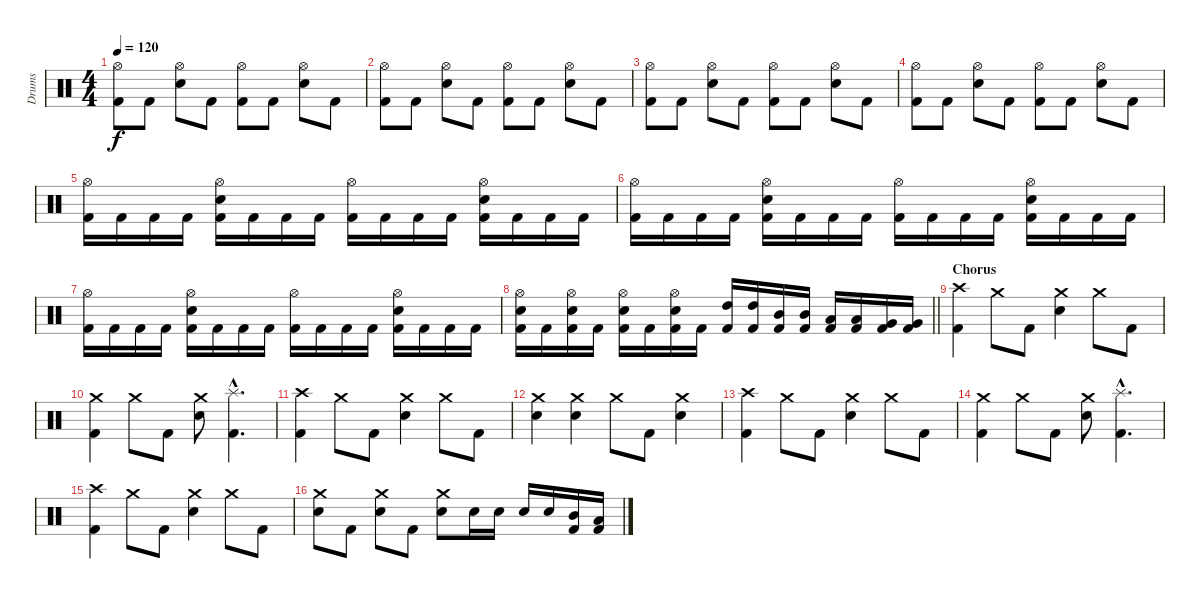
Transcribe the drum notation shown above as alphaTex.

\track ("Drums" "Drums") {instrument percussion}
\staff {score}
\articulation defaults
\ts (4 4)
\tempo 120
\clef neutral
\ks c
("Hi-Hat (open)" "Kick (hit) 2").8{dy f} "Kick (hit) 2".8 ("Hi-Hat (open)" "Electric Snare (hit)").8 "Kick (hit) 2".8 ("Hi-Hat (open)" "Kick (hit) 2").8 "Kick (hit) 2".8 ("Hi-Hat (open)" "Electric Snare (hit)").8 "Kick (hit) 2".8 |
("Hi-Hat (open)" "Kick (hit) 2").8 "Kick (hit) 2".8 ("Hi-Hat (open)" "Electric Snare (hit)").8 "Kick (hit) 2".8 ("Hi-Hat (open)" "Kick (hit) 2").8 "Kick (hit) 2".8 ("Hi-Hat (open)" "Electric Snare (hit)").8 "Kick (hit) 2".8 |
("Hi-Hat (open)" "Kick (hit) 2").8 "Kick (hit) 2".8 ("Hi-Hat (open)" "Electric Snare (hit)").8 "Kick (hit) 2".8 ("Hi-Hat (open)" "Kick (hit) 2").8 "Kick (hit) 2".8 ("Hi-Hat (open)" "Electric Snare (hit)").8 "Kick (hit) 2".8 |
("Hi-Hat (open)" "Kick (hit) 2").8 "Kick (hit) 2".8 ("Hi-Hat (open)" "Electric Snare (hit)").8 "Kick (hit) 2".8 ("Hi-Hat (open)" "Kick (hit) 2").8 "Kick (hit) 2".8 ("Hi-Hat (open)" "Electric Snare (hit)").8 "Kick (hit) 2".8 |
("Hi-Hat (open)" "Kick (hit) 2").16 "Kick (hit) 2".16 "Kick (hit) 2".16 "Kick (hit) 2".16 ("Hi-Hat (open)" "Electric Snare (hit)" "Kick (hit) 2").16 "Kick (hit) 2".16 "Kick (hit) 2".16 "Kick (hit) 2".16 ("Hi-Hat (open)" "Kick (hit) 2").16 "Kick (hit) 2".16 "Kick (hit) 2".16 "Kick (hit) 2".16 ("Hi-Hat (open)" "Electric Snare (hit)" "Kick (hit) 2").16 "Kick (hit) 2".16 "Kick (hit) 2".16 "Kick (hit) 2".16 |
("Hi-Hat (open)" "Kick (hit) 2").16 "Kick (hit) 2".16 "Kick (hit) 2".16 "Kick (hit) 2".16 ("Hi-Hat (open)" "Electric Snare (hit)" "Kick (hit) 2").16 "Kick (hit) 2".16 "Kick (hit) 2".16 "Kick (hit) 2".16 ("Hi-Hat (open)" "Kick (hit) 2").16 "Kick (hit) 2".16 "Kick (hit) 2".16 "Kick (hit) 2".16 ("Hi-Hat (open)" "Electric Snare (hit)" "Kick (hit) 2").16 "Kick (hit) 2".16 "Kick (hit) 2".16 "Kick (hit) 2".16 |
("Hi-Hat (open)" "Kick (hit) 2").16 "Kick (hit) 2".16 "Kick (hit) 2".16 "Kick (hit) 2".16 ("Hi-Hat (open)" "Electric Snare (hit)" "Kick (hit) 2").16 "Kick (hit) 2".16 "Kick (hit) 2".16 "Kick (hit) 2".16 ("Hi-Hat (open)" "Kick (hit) 2").16 "Kick (hit) 2".16 "Kick (hit) 2".16 "Kick (hit) 2".16 ("Hi-Hat (open)" "Electric Snare (hit)" "Kick (hit) 2").16 "Kick (hit) 2".16 "Kick (hit) 2".16 "Kick (hit) 2".16 |
\barLineRight lightlight
("Hi-Hat (open)" "Electric Snare (hit)" "Kick (hit) 2").16 "Kick (hit) 2".16 ("Hi-Hat (open)" "Electric Snare (hit)" "Kick (hit) 2").16 "Kick (hit) 2".16 ("Hi-Hat (open)" "Electric Snare (hit)" "Kick (hit) 2").16 "Kick (hit) 2".16 ("Hi-Hat (open)" "Electric Snare (hit)" "Kick (hit) 2").16 "Kick (hit) 2".16 ("High Tom (hit)" "Kick (hit) 2").16 ("High Tom (hit)" "Kick (hit) 2").16 ("Mid Tom (hit)" "Kick (hit) 2").16 ("Mid Tom (hit)" "Kick (hit) 2").16 ("Low Tom (hit)" "Kick (hit) 2").16 ("Low Tom (hit)" "Kick (hit) 2").16 ("Very Low Tom (hit)" "Kick (hit) 2").16 ("Very Low Tom (hit)" "Kick (hit) 2").16 |
\section ("" "Chorus")
("Crash high (hit)" "Kick (hit) 2").4 "Crash medium (hit)".8 "Kick (hit) 2".8 ("Crash medium (hit)" "Electric Snare (hit)").4 "Crash medium (hit)".8 "Kick (hit) 2".8 |
("Crash medium (hit)" "Kick (hit) 2").4 "Crash medium (hit)".8 "Kick (hit) 2".8 ("Crash medium (hit)" "Electric Snare (hit)").8 ("Splash (hit)"{hac} "Kick (hit) 2"{hac}).4{d} |
("Crash high (hit)" "Kick (hit) 2").4 "Crash medium (hit)".8 "Kick (hit) 2".8 ("Crash medium (hit)" "Electric Snare (hit)").4 "Crash medium (hit)".8 "Kick (hit) 2".8 |
("Crash medium (hit)" "Electric Snare (hit)").4 ("Crash medium (hit)" "Electric Snare (hit)").4 "Crash medium (hit)".8 "Kick (hit) 2".8 ("Crash medium (hit)" "Electric Snare (hit)").4 |
("Crash high (hit)" "Kick (hit) 2").4 "Crash medium (hit)".8 "Kick (hit) 2".8 ("Crash medium (hit)" "Electric Snare (hit)").4 "Crash medium (hit)".8 "Kick (hit) 2".8 |
("Crash medium (hit)" "Kick (hit) 2").4 "Crash medium (hit)".8 "Kick (hit) 2".8 ("Crash medium (hit)" "Electric Snare (hit)").8 ("Splash (hit)"{hac} "Kick (hit) 2"{hac}).4{d} |
("Crash high (hit)" "Kick (hit) 2").4 "Crash medium (hit)".8 "Kick (hit) 2".8 ("Crash medium (hit)" "Electric Snare (hit)").4 "Crash medium (hit)".8 "Kick (hit) 2".8 |
("Crash medium (hit)" "Electric Snare (hit)").8 "Kick (hit) 2".8 ("Crash medium (hit)" "Electric Snare (hit)").8 "Kick (hit) 2".8 ("Crash medium (hit)" "Electric Snare (hit)").8 "Electric Snare (hit)".16 "Electric Snare (hit)".16 "Electric Snare (hit)".16 "Electric Snare (hit)".16 ("Mid Tom (hit)" "Kick (hit) 2").16 ("Low Tom (hit)" "Kick (hit) 2").16
